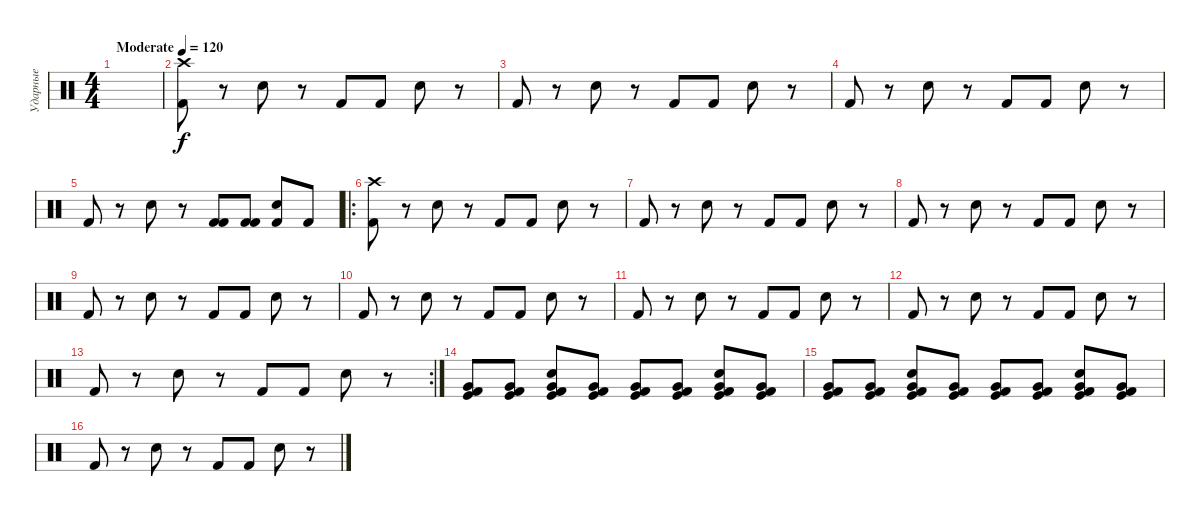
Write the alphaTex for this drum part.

\track ("Ударные" "Ударные") {instrument percussion}
\staff {score}
\articulation defaults
\ts (4 4)
\tempo (120 "Moderate")
\tempo 105
\tempo (120 "Moderate")
\clef neutral
\ks c
|
("Crash high (hit)" "Kick (hit) 2").8 r.8 "Snare (hit) 2".8 r.8 "Kick (hit) 2".8 "Kick (hit) 2".8 "Snare (hit) 2".8 r.8 |
"Kick (hit) 2".8 r.8 "Snare (hit) 2".8 r.8 "Kick (hit) 2".8 "Kick (hit) 2".8 "Snare (hit) 2".8 r.8 |
"Kick (hit) 2".8 r.8 "Snare (hit) 2".8 r.8 "Kick (hit) 2".8 "Kick (hit) 2".8 "Snare (hit) 2".8 r.8 |
"Kick (hit) 2".8 r.8 "Snare (hit) 2".8 r.8 ("Kick (hit) 2" "Kick (hit) 2").8 ("Kick (hit) 2" "Kick (hit) 2").8 ("Kick (hit) 2" "Snare (hit) 2").8 "Kick (hit) 2".8 |
\ro
("Crash high (hit)" "Kick (hit) 2").8 r.8 "Snare (hit) 2".8 r.8 "Kick (hit) 2".8 "Kick (hit) 2".8 "Snare (hit) 2".8 r.8 |
"Kick (hit) 2".8 r.8 "Snare (hit) 2".8 r.8 "Kick (hit) 2".8 "Kick (hit) 2".8 "Snare (hit) 2".8 r.8 |
"Kick (hit) 2".8 r.8 "Snare (hit) 2".8 r.8 "Kick (hit) 2".8 "Kick (hit) 2".8 "Snare (hit) 2".8 r.8 |
"Kick (hit) 2".8 r.8 "Snare (hit) 2".8 r.8 "Kick (hit) 2".8 "Kick (hit) 2".8 "Snare (hit) 2".8 r.8 |
"Kick (hit) 2".8 r.8 "Snare (hit) 2".8 r.8 "Kick (hit) 2".8 "Kick (hit) 2".8 "Snare (hit) 2".8 r.8 |
"Kick (hit) 2".8 r.8 "Snare (hit) 2".8 r.8 "Kick (hit) 2".8 "Kick (hit) 2".8 "Snare (hit) 2".8 r.8 |
"Kick (hit) 2".8 r.8 "Snare (hit) 2".8 r.8 "Kick (hit) 2".8 "Kick (hit) 2".8 "Snare (hit) 2".8 r.8 |
\rc 2 "Kick (hit) 2".8
r.8 "Snare (hit) 2".8 r.8 "Kick (hit) 2".8 "Kick (hit) 2".8 "Snare (hit) 2".8 r.8 |
("Very Low Tom (hit)" "Kick (hit)" "Kick (hit) 2").8 ("Very Low Tom (hit)" "Kick (hit)" "Kick (hit) 2").8 ("Very Low Tom (hit)" "Kick (hit)" "Snare (hit) 2" "Kick (hit) 2").8 ("Very Low Tom (hit)" "Kick (hit)" "Kick (hit) 2").8 ("Very Low Tom (hit)" "Kick (hit)" "Kick (hit) 2").8 ("Very Low Tom (hit)" "Kick (hit)" "Kick (hit) 2").8 ("Very Low Tom (hit)" "Kick (hit)" "Snare (hit) 2" "Kick (hit) 2").8 ("Very Low Tom (hit)" "Kick (hit)" "Kick (hit) 2").8 |
("Very Low Tom (hit)" "Kick (hit)" "Kick (hit) 2").8 ("Very Low Tom (hit)" "Kick (hit)" "Kick (hit) 2").8 ("Very Low Tom (hit)" "Kick (hit)" "Snare (hit) 2" "Kick (hit) 2").8 ("Very Low Tom (hit)" "Kick (hit)" "Kick (hit) 2").8 ("Very Low Tom (hit)" "Kick (hit)" "Kick (hit) 2").8 ("Very Low Tom (hit)" "Kick (hit)" "Kick (hit) 2").8 ("Very Low Tom (hit)" "Kick (hit)" "Snare (hit) 2" "Kick (hit) 2").8 ("Very Low Tom (hit)" "Kick (hit)" "Kick (hit) 2").8 |
"Kick (hit) 2".8 r.8 "Snare (hit) 2".8 r.8 "Kick (hit) 2".8 "Kick (hit) 2".8 "Snare (hit) 2".8 r.8
